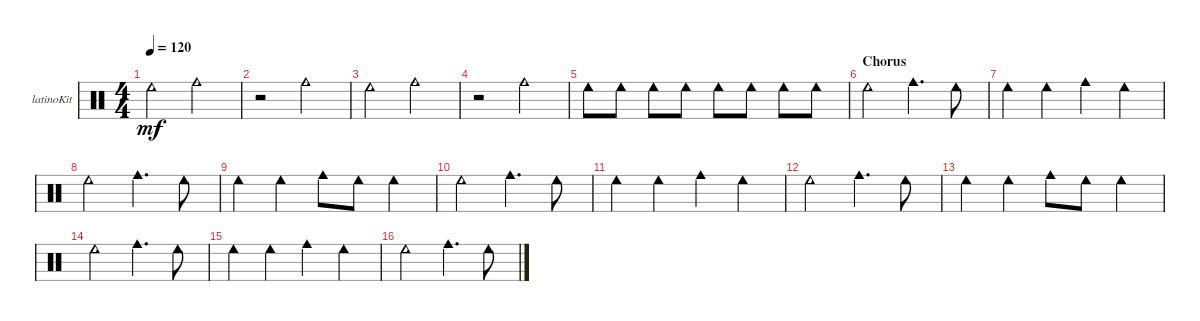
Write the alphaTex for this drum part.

\defaultSystemsLayout 4
\bracketExtendMode groupsimilarinstruments
\firstSystemTrackNameOrientation horizontal
\otherSystemsTrackNameOrientation horizontal
\track ("Kit-Latino" "latinoKit") {instrument percussion}
\staff {score}
\articulation defaults
\ts (4 4)
\tempo 120
\clef neutral
\scale
0.333333
\ks c "Cowbell low (hit)".2{dy mf} "Cowbell medium (hit)".2
|
\scale
0.333333 r.2 "Cowbell medium (hit)".2 |
\scale
0.333333 "Cowbell low (hit)".2 "Cowbell medium (hit)".2 |
\scale
0.333333 r.2 "Cowbell medium (hit)".2 |
\scale
0.333333 "Cowbell low (hit)".8 "Cowbell low (hit)".8 "Cowbell low (hit)".8 "Cowbell low (hit)".8 "Cowbell low (hit)".8 "Cowbell low (hit)".8 "Cowbell low (hit)".8 "Cowbell low (hit)".8 |
\section ("" "Chorus")
\scale
0.333333 "Cowbell low (hit)".2 "Cowbell medium (hit)".4{d} "Cowbell low (hit)".8 |
\scale
0.333333 "Cowbell low (hit)".4 "Cowbell low (hit)".4 "Cowbell medium (hit)".4 "Cowbell low (hit)".4 |
\scale
0.333333 "Cowbell low (hit)".2 "Cowbell medium (hit)".4{d} "Cowbell low (hit)".8 |
\scale
0.333333 "Cowbell low (hit)".4 "Cowbell low (hit)".4 "Cowbell medium (hit)".8 "Cowbell low (hit)".8 "Cowbell low (hit)".4 |
\scale
0.333333 "Cowbell low (hit)".2 "Cowbell medium (hit)".4{d} "Cowbell low (hit)".8 |
\scale
0.333333 "Cowbell low (hit)".4 "Cowbell low (hit)".4 "Cowbell medium (hit)".4 "Cowbell low (hit)".4 |
\scale
0.333333 "Cowbell low (hit)".2 "Cowbell medium (hit)".4{d} "Cowbell low (hit)".8 |
\scale
0.333333 "Cowbell low (hit)".4 "Cowbell low (hit)".4 "Cowbell medium (hit)".8 "Cowbell low (hit)".8 "Cowbell low (hit)".4 |
\scale
0.333333 "Cowbell low (hit)".2 "Cowbell medium (hit)".4{d} "Cowbell low (hit)".8 |
\scale
0.333333 "Cowbell low (hit)".4 "Cowbell low (hit)".4 "Cowbell medium (hit)".4 "Cowbell low (hit)".4 |
\scale
0.333333 "Cowbell low (hit)".2 "Cowbell medium (hit)".4{d} "Cowbell low (hit)".8
